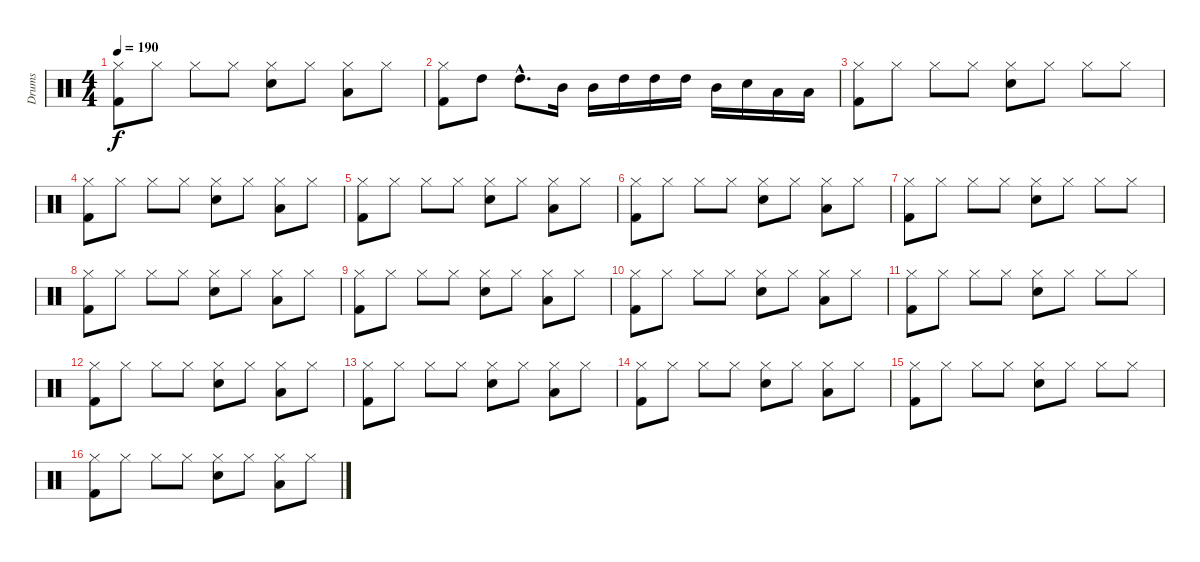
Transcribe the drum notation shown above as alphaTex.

\track ("Drums" "Drums") {instrument percussion}
\staff {score}
\articulation defaults
\ts (4 4)
\tempo 190
\clef neutral
\ks c
("Kick (hit) 2" "Hi-Hat (closed)").8{dy f} "Hi-Hat (closed)".8 "Hi-Hat (closed)".8 "Hi-Hat (closed)".8 ("Snare (hit) 2" "Hi-Hat (closed)").8 "Hi-Hat (closed)".8 ("Low Tom (hit)" "Hi-Hat (closed)").8 "Hi-Hat (closed)".8 |
("Kick (hit) 2" "Hi-Hat (closed)").8 "High Tom (hit)".8 "High Tom (hit)"{hac}.8{d} "Mid Tom (hit)".16 "Mid Tom (hit)".16 "High Tom (hit)".16 "High Tom (hit)".16 "High Tom (hit)".16 "Mid Tom (hit)".16 "Snare (hit) 2".16 "Low Tom (hit)".16 "Low Tom (hit)".16 |
("Kick (hit) 2" "Hi-Hat (closed)").8 "Hi-Hat (closed)".8 "Hi-Hat (closed)".8 "Hi-Hat (closed)".8 ("Snare (hit) 2" "Hi-Hat (closed)").8 "Hi-Hat (closed)".8 "Hi-Hat (closed)".8 "Hi-Hat (closed)".8 |
("Kick (hit) 2" "Hi-Hat (closed)").8 "Hi-Hat (closed)".8 "Hi-Hat (closed)".8 "Hi-Hat (closed)".8 ("Snare (hit) 2" "Hi-Hat (closed)").8 "Hi-Hat (closed)".8 ("Low Tom (hit)" "Hi-Hat (closed)").8 "Hi-Hat (closed)".8 |
("Kick (hit) 2" "Hi-Hat (closed)").8 "Hi-Hat (closed)".8 "Hi-Hat (closed)".8 "Hi-Hat (closed)".8 ("Snare (hit) 2" "Hi-Hat (closed)").8 "Hi-Hat (closed)".8 ("Low Tom (hit)" "Hi-Hat (closed)").8 "Hi-Hat (closed)".8 |
("Kick (hit) 2" "Hi-Hat (closed)").8 "Hi-Hat (closed)".8 "Hi-Hat (closed)".8 "Hi-Hat (closed)".8 ("Snare (hit) 2" "Hi-Hat (closed)").8 "Hi-Hat (closed)".8 ("Low Tom (hit)" "Hi-Hat (closed)").8 "Hi-Hat (closed)".8 |
("Kick (hit) 2" "Hi-Hat (closed)").8 "Hi-Hat (closed)".8 "Hi-Hat (closed)".8 "Hi-Hat (closed)".8 ("Snare (hit) 2" "Hi-Hat (closed)").8 "Hi-Hat (closed)".8 "Hi-Hat (closed)".8 "Hi-Hat (closed)".8 |
("Kick (hit) 2" "Hi-Hat (closed)").8 "Hi-Hat (closed)".8 "Hi-Hat (closed)".8 "Hi-Hat (closed)".8 ("Snare (hit) 2" "Hi-Hat (closed)").8 "Hi-Hat (closed)".8 ("Low Tom (hit)" "Hi-Hat (closed)").8 "Hi-Hat (closed)".8 |
("Kick (hit) 2" "Hi-Hat (closed)").8 "Hi-Hat (closed)".8 "Hi-Hat (closed)".8 "Hi-Hat (closed)".8 ("Snare (hit) 2" "Hi-Hat (closed)").8 "Hi-Hat (closed)".8 ("Low Tom (hit)" "Hi-Hat (closed)").8 "Hi-Hat (closed)".8 |
("Kick (hit) 2" "Hi-Hat (closed)").8 "Hi-Hat (closed)".8 "Hi-Hat (closed)".8 "Hi-Hat (closed)".8 ("Snare (hit) 2" "Hi-Hat (closed)").8 "Hi-Hat (closed)".8 ("Low Tom (hit)" "Hi-Hat (closed)").8 "Hi-Hat (closed)".8 |
("Kick (hit) 2" "Hi-Hat (closed)").8 "Hi-Hat (closed)".8 "Hi-Hat (closed)".8 "Hi-Hat (closed)".8 ("Snare (hit) 2" "Hi-Hat (closed)").8 "Hi-Hat (closed)".8 "Hi-Hat (closed)".8 "Hi-Hat (closed)".8 |
("Kick (hit) 2" "Hi-Hat (closed)").8 "Hi-Hat (closed)".8 "Hi-Hat (closed)".8 "Hi-Hat (closed)".8 ("Snare (hit) 2" "Hi-Hat (closed)").8 "Hi-Hat (closed)".8 ("Low Tom (hit)" "Hi-Hat (closed)").8 "Hi-Hat (closed)".8 |
("Kick (hit) 2" "Hi-Hat (closed)").8 "Hi-Hat (closed)".8 "Hi-Hat (closed)".8 "Hi-Hat (closed)".8 ("Snare (hit) 2" "Hi-Hat (closed)").8 "Hi-Hat (closed)".8 ("Low Tom (hit)" "Hi-Hat (closed)").8 "Hi-Hat (closed)".8 |
("Kick (hit) 2" "Hi-Hat (closed)").8 "Hi-Hat (closed)".8 "Hi-Hat (closed)".8 "Hi-Hat (closed)".8 ("Snare (hit) 2" "Hi-Hat (closed)").8 "Hi-Hat (closed)".8 ("Low Tom (hit)" "Hi-Hat (closed)").8 "Hi-Hat (closed)".8 |
("Kick (hit) 2" "Hi-Hat (closed)").8 "Hi-Hat (closed)".8 "Hi-Hat (closed)".8 "Hi-Hat (closed)".8 ("Snare (hit) 2" "Hi-Hat (closed)").8 "Hi-Hat (closed)".8 "Hi-Hat (closed)".8 "Hi-Hat (closed)".8 |
("Kick (hit) 2" "Hi-Hat (closed)").8 "Hi-Hat (closed)".8 "Hi-Hat (closed)".8 "Hi-Hat (closed)".8 ("Snare (hit) 2" "Hi-Hat (closed)").8 "Hi-Hat (closed)".8 ("Low Tom (hit)" "Hi-Hat (closed)").8 "Hi-Hat (closed)".8
